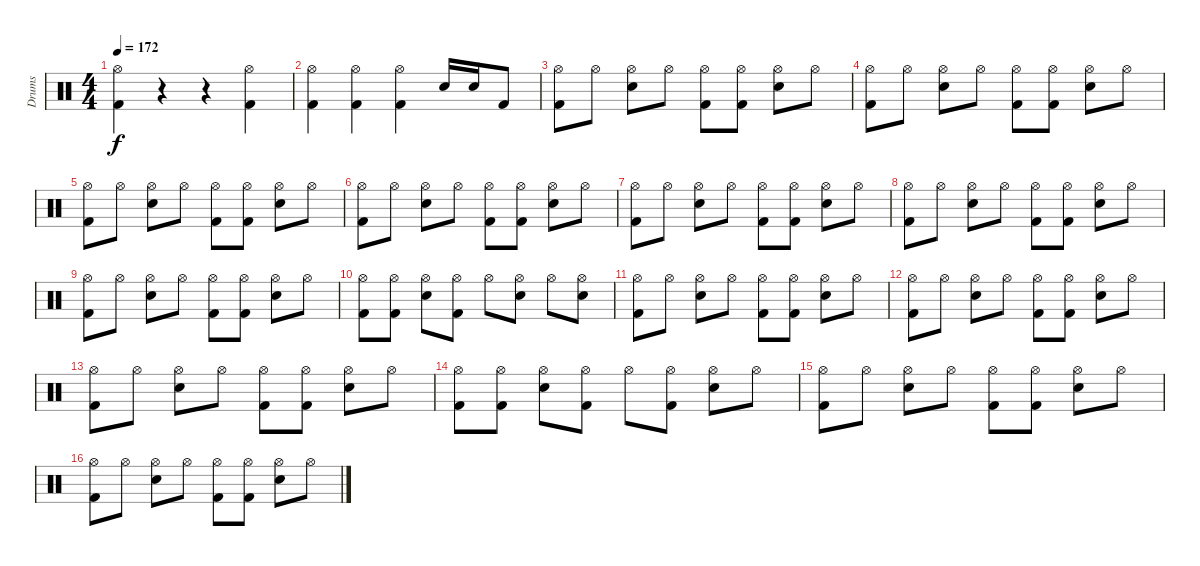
\track ("Drums" "Drums") {instrument percussion}
\staff {score}
\articulation defaults
\ts (4 4)
\tempo 172
\clef neutral
\ks c
("Hi-Hat (open)" "Kick (hit) 2").4{dy f} r.4 r.4 ("Hi-Hat (open)" "Kick (hit) 2").4 |
("Hi-Hat (open)" "Kick (hit) 2").4 ("Hi-Hat (open)" "Kick (hit) 2").4 ("Hi-Hat (open)" "Kick (hit) 2").4 "Electric Snare (hit)".16 "Electric Snare (hit)".16 "Kick (hit) 2".8 |
("Hi-Hat (open)" "Kick (hit) 2").8 "Hi-Hat (open)".8 ("Hi-Hat (open)" "Electric Snare (hit)").8 "Hi-Hat (open)".8 ("Hi-Hat (open)" "Kick (hit) 2").8 ("Hi-Hat (open)" "Kick (hit) 2").8 ("Hi-Hat (open)" "Electric Snare (hit)").8 "Hi-Hat (open)".8 |
("Hi-Hat (open)" "Kick (hit) 2").8 "Hi-Hat (open)".8 ("Hi-Hat (open)" "Electric Snare (hit)").8 "Hi-Hat (open)".8 ("Hi-Hat (open)" "Kick (hit) 2").8 ("Hi-Hat (open)" "Kick (hit) 2").8 ("Hi-Hat (open)" "Electric Snare (hit)").8 "Hi-Hat (open)".8 |
("Hi-Hat (open)" "Kick (hit) 2").8 "Hi-Hat (open)".8 ("Hi-Hat (open)" "Electric Snare (hit)").8 "Hi-Hat (open)".8 ("Hi-Hat (open)" "Kick (hit) 2").8 ("Hi-Hat (open)" "Kick (hit) 2").8 ("Hi-Hat (open)" "Electric Snare (hit)").8 "Hi-Hat (open)".8 |
("Hi-Hat (open)" "Kick (hit) 2").8 "Hi-Hat (open)".8 ("Hi-Hat (open)" "Electric Snare (hit)").8 "Hi-Hat (open)".8 ("Hi-Hat (open)" "Kick (hit) 2").8 ("Hi-Hat (open)" "Kick (hit) 2").8 ("Hi-Hat (open)" "Electric Snare (hit)").8 "Hi-Hat (open)".8 |
("Hi-Hat (open)" "Kick (hit) 2").8 "Hi-Hat (open)".8 ("Hi-Hat (open)" "Electric Snare (hit)").8 "Hi-Hat (open)".8 ("Hi-Hat (open)" "Kick (hit) 2").8 ("Hi-Hat (open)" "Kick (hit) 2").8 ("Hi-Hat (open)" "Electric Snare (hit)").8 "Hi-Hat (open)".8 |
("Hi-Hat (open)" "Kick (hit) 2").8 "Hi-Hat (open)".8 ("Hi-Hat (open)" "Electric Snare (hit)").8 "Hi-Hat (open)".8 ("Hi-Hat (open)" "Kick (hit) 2").8 ("Hi-Hat (open)" "Kick (hit) 2").8 ("Hi-Hat (open)" "Electric Snare (hit)").8 "Hi-Hat (open)".8 |
("Hi-Hat (open)" "Kick (hit) 2").8 "Hi-Hat (open)".8 ("Hi-Hat (open)" "Electric Snare (hit)").8 "Hi-Hat (open)".8 ("Hi-Hat (open)" "Kick (hit) 2").8 ("Hi-Hat (open)" "Kick (hit) 2").8 ("Hi-Hat (open)" "Electric Snare (hit)").8 "Hi-Hat (open)".8 |
("Hi-Hat (open)" "Kick (hit) 2").8 ("Hi-Hat (open)" "Kick (hit) 2").8 ("Hi-Hat (open)" "Electric Snare (hit)").8 ("Hi-Hat (open)" "Kick (hit) 2").8 "Hi-Hat (open)".8 ("Hi-Hat (open)" "Electric Snare (hit)").8 "Hi-Hat (open)".8 ("Hi-Hat (open)" "Electric Snare (hit)").8 |
("Hi-Hat (open)" "Kick (hit) 2").8 "Hi-Hat (open)".8 ("Hi-Hat (open)" "Electric Snare (hit)").8 "Hi-Hat (open)".8 ("Hi-Hat (open)" "Kick (hit) 2").8 ("Hi-Hat (open)" "Kick (hit) 2").8 ("Hi-Hat (open)" "Electric Snare (hit)").8 "Hi-Hat (open)".8 |
("Hi-Hat (open)" "Kick (hit) 2").8 "Hi-Hat (open)".8 ("Hi-Hat (open)" "Electric Snare (hit)").8 "Hi-Hat (open)".8 ("Hi-Hat (open)" "Kick (hit) 2").8 ("Hi-Hat (open)" "Kick (hit) 2").8 ("Hi-Hat (open)" "Electric Snare (hit)").8 "Hi-Hat (open)".8 |
("Hi-Hat (open)" "Kick (hit) 2").8 "Hi-Hat (open)".8 ("Hi-Hat (open)" "Electric Snare (hit)").8 "Hi-Hat (open)".8 ("Hi-Hat (open)" "Kick (hit) 2").8 ("Hi-Hat (open)" "Kick (hit) 2").8 ("Hi-Hat (open)" "Electric Snare (hit)").8 "Hi-Hat (open)".8 |
("Hi-Hat (open)" "Kick (hit) 2").8 ("Hi-Hat (open)" "Kick (hit) 2").8 ("Hi-Hat (open)" "Electric Snare (hit)").8 ("Hi-Hat (open)" "Kick (hit) 2").8 "Hi-Hat (open)".8 ("Hi-Hat (open)" "Kick (hit) 2").8 ("Hi-Hat (open)" "Electric Snare (hit)").8 "Hi-Hat (open)".8 |
("Hi-Hat (open)" "Kick (hit) 2").8 "Hi-Hat (open)".8 ("Hi-Hat (open)" "Electric Snare (hit)").8 "Hi-Hat (open)".8 ("Hi-Hat (open)" "Kick (hit) 2").8 ("Hi-Hat (open)" "Kick (hit) 2").8 ("Hi-Hat (open)" "Electric Snare (hit)").8 "Hi-Hat (open)".8 |
("Hi-Hat (open)" "Kick (hit) 2").8 "Hi-Hat (open)".8 ("Hi-Hat (open)" "Electric Snare (hit)").8 "Hi-Hat (open)".8 ("Hi-Hat (open)" "Kick (hit) 2").8 ("Hi-Hat (open)" "Kick (hit) 2").8 ("Hi-Hat (open)" "Electric Snare (hit)").8 "Hi-Hat (open)".8
